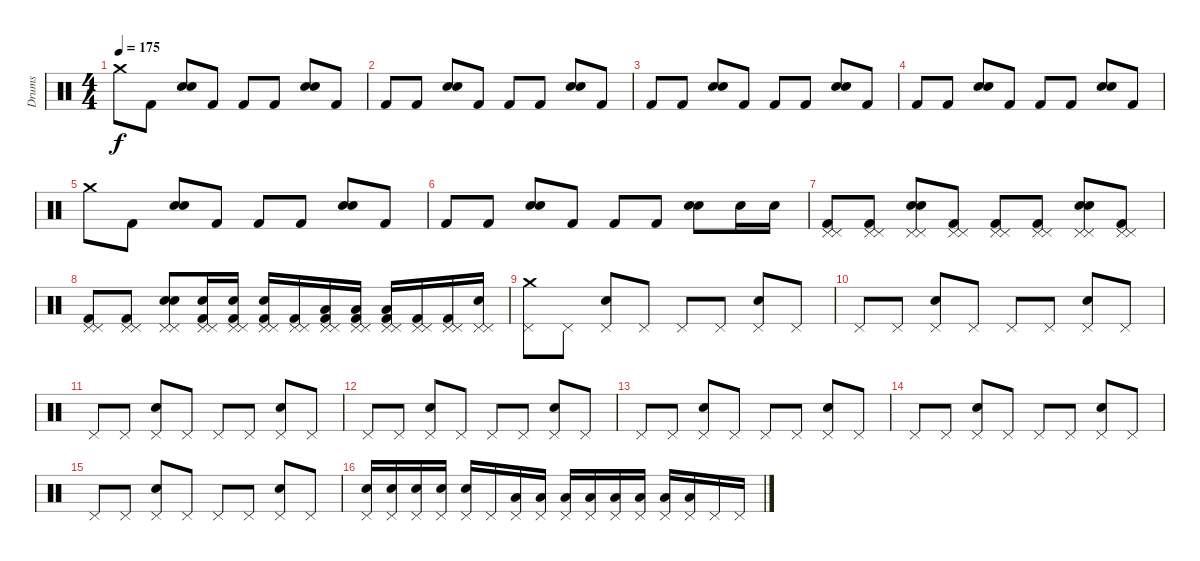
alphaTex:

\track ("Drums" "Drums") {instrument percussion}
\staff {score}
\articulation defaults
\ts (4 4)
\tempo 175
\clef neutral
\ks c "Crash medium (hit)".8{dy f} "Kick (hit) 2".8
("Snare (hit) 2" "Snare (hit) 2").8 "Kick (hit) 2".8 "Kick (hit) 2".8 "Kick (hit) 2".8 ("Snare (hit) 2" "Snare (hit) 2").8 "Kick (hit) 2".8 |
"Kick (hit) 2".8 "Kick (hit) 2".8 ("Snare (hit) 2" "Snare (hit) 2").8 "Kick (hit) 2".8 "Kick (hit) 2".8 "Kick (hit) 2".8 ("Snare (hit) 2" "Snare (hit) 2").8 "Kick (hit) 2".8 |
"Kick (hit) 2".8 "Kick (hit) 2".8 ("Snare (hit) 2" "Snare (hit) 2").8 "Kick (hit) 2".8 "Kick (hit) 2".8 "Kick (hit) 2".8 ("Snare (hit) 2" "Snare (hit) 2").8 "Kick (hit) 2".8 |
"Kick (hit) 2".8 "Kick (hit) 2".8 ("Snare (hit) 2" "Snare (hit) 2").8 "Kick (hit) 2".8 "Kick (hit) 2".8 "Kick (hit) 2".8 ("Snare (hit) 2" "Snare (hit) 2").8 "Kick (hit) 2".8 |
"Crash medium (hit)".8 "Kick (hit) 2".8 ("Snare (hit) 2" "Snare (hit) 2").8 "Kick (hit) 2".8 "Kick (hit) 2".8 "Kick (hit) 2".8 ("Snare (hit) 2" "Snare (hit) 2").8 "Kick (hit) 2".8 |
"Kick (hit) 2".8 "Kick (hit) 2".8 ("Snare (hit) 2" "Snare (hit) 2").8 "Kick (hit) 2".8 "Kick (hit) 2".8 "Kick (hit) 2".8 ("Snare (hit) 2" "Snare (hit) 2").8 "Snare (hit) 2".16 "Snare (hit) 2".16 |
("Kick (hit) 2" "Pedal Hi-Hat (hit)" "Pedal Hi-Hat (hit)").8 ("Kick (hit) 2" "Pedal Hi-Hat (hit)" "Pedal Hi-Hat (hit)").8 ("Snare (hit) 2" "Snare (hit) 2" "Pedal Hi-Hat (hit)" "Pedal Hi-Hat (hit)").8 ("Kick (hit) 2" "Pedal Hi-Hat (hit)" "Pedal Hi-Hat (hit)").8 ("Kick (hit) 2" "Pedal Hi-Hat (hit)" "Pedal Hi-Hat (hit)").8 ("Kick (hit) 2" "Pedal Hi-Hat (hit)" "Pedal Hi-Hat (hit)").8 ("Snare (hit) 2" "Snare (hit) 2" "Pedal Hi-Hat (hit)" "Pedal Hi-Hat (hit)").8 ("Kick (hit) 2" "Pedal Hi-Hat (hit)" "Pedal Hi-Hat (hit)").8 |
("Kick (hit) 2" "Pedal Hi-Hat (hit)" "Pedal Hi-Hat (hit)").8 ("Kick (hit) 2" "Pedal Hi-Hat (hit)" "Pedal Hi-Hat (hit)").8 ("Snare (hit) 2" "Snare (hit) 2" "Pedal Hi-Hat (hit)" "Pedal Hi-Hat (hit)").8 ("Kick (hit) 2" "Snare (hit) 2" "Pedal Hi-Hat (hit)" "Pedal Hi-Hat (hit)").16 ("Kick (hit) 2" "Snare (hit) 2" "Pedal Hi-Hat (hit)" "Pedal Hi-Hat (hit)").16 ("Kick (hit) 2" "Snare (hit) 2" "Pedal Hi-Hat (hit)" "Pedal Hi-Hat (hit)").16 ("Kick (hit) 2" "Pedal Hi-Hat (hit)" "Pedal Hi-Hat (hit)").16 ("Kick (hit) 2" "Low Tom (hit)" "Pedal Hi-Hat (hit)" "Pedal Hi-Hat (hit)").16 ("Kick (hit) 2" "Low Tom (hit)" "Pedal Hi-Hat (hit)" "Pedal Hi-Hat (hit)").16 ("Kick (hit) 2" "Low Tom (hit)" "Pedal Hi-Hat (hit)" "Pedal Hi-Hat (hit)").16 ("Kick (hit) 2" "Pedal Hi-Hat (hit)" "Pedal Hi-Hat (hit)").16 ("Kick (hit) 2" "Pedal Hi-Hat (hit)" "Pedal Hi-Hat (hit)").16 ("Snare (hit) 2" "Pedal Hi-Hat (hit)" "Pedal Hi-Hat (hit)").16 |
("Pedal Hi-Hat (hit)" "Crash medium (hit)").8 "Pedal Hi-Hat (hit)".8 ("Pedal Hi-Hat (hit)" "Snare (hit) 2").8 "Pedal Hi-Hat (hit)".8 "Pedal Hi-Hat (hit)".8 "Pedal Hi-Hat (hit)".8 ("Pedal Hi-Hat (hit)" "Snare (hit) 2").8 "Pedal Hi-Hat (hit)".8 |
"Pedal Hi-Hat (hit)".8 "Pedal Hi-Hat (hit)".8 ("Pedal Hi-Hat (hit)" "Snare (hit) 2").8 "Pedal Hi-Hat (hit)".8 "Pedal Hi-Hat (hit)".8 "Pedal Hi-Hat (hit)".8 ("Pedal Hi-Hat (hit)" "Snare (hit) 2").8 "Pedal Hi-Hat (hit)".8 |
"Pedal Hi-Hat (hit)".8 "Pedal Hi-Hat (hit)".8 ("Pedal Hi-Hat (hit)" "Snare (hit) 2").8 "Pedal Hi-Hat (hit)".8 "Pedal Hi-Hat (hit)".8 "Pedal Hi-Hat (hit)".8 ("Pedal Hi-Hat (hit)" "Snare (hit) 2").8 "Pedal Hi-Hat (hit)".8 |
"Pedal Hi-Hat (hit)".8 "Pedal Hi-Hat (hit)".8 ("Pedal Hi-Hat (hit)" "Snare (hit) 2").8 "Pedal Hi-Hat (hit)".8 "Pedal Hi-Hat (hit)".8 "Pedal Hi-Hat (hit)".8 ("Pedal Hi-Hat (hit)" "Snare (hit) 2").8 "Pedal Hi-Hat (hit)".8 |
"Pedal Hi-Hat (hit)".8 "Pedal Hi-Hat (hit)".8 ("Pedal Hi-Hat (hit)" "Snare (hit) 2").8 "Pedal Hi-Hat (hit)".8 "Pedal Hi-Hat (hit)".8 "Pedal Hi-Hat (hit)".8 ("Pedal Hi-Hat (hit)" "Snare (hit) 2").8 "Pedal Hi-Hat (hit)".8 |
"Pedal Hi-Hat (hit)".8 "Pedal Hi-Hat (hit)".8 ("Pedal Hi-Hat (hit)" "Snare (hit) 2").8 "Pedal Hi-Hat (hit)".8 "Pedal Hi-Hat (hit)".8 "Pedal Hi-Hat (hit)".8 ("Pedal Hi-Hat (hit)" "Snare (hit) 2").8 "Pedal Hi-Hat (hit)".8 |
"Pedal Hi-Hat (hit)".8 "Pedal Hi-Hat (hit)".8 ("Pedal Hi-Hat (hit)" "Snare (hit) 2").8 "Pedal Hi-Hat (hit)".8 "Pedal Hi-Hat (hit)".8 "Pedal Hi-Hat (hit)".8 ("Pedal Hi-Hat (hit)" "Snare (hit) 2").8 "Pedal Hi-Hat (hit)".8 |
("Pedal Hi-Hat (hit)" "Snare (hit) 2").16 ("Pedal Hi-Hat (hit)" "Snare (hit) 2").16 ("Pedal Hi-Hat (hit)" "Snare (hit) 2").16 ("Pedal Hi-Hat (hit)" "Snare (hit) 2").16 ("Pedal Hi-Hat (hit)" "Snare (hit) 2").16 "Pedal Hi-Hat (hit)".16 ("Pedal Hi-Hat (hit)" "Low Tom (hit)").16 ("Pedal Hi-Hat (hit)" "Low Tom (hit)").16 ("Pedal Hi-Hat (hit)" "Low Tom (hit)").16 ("Pedal Hi-Hat (hit)" "Low Tom (hit)").16 ("Pedal Hi-Hat (hit)" "Low Tom (hit)").16 ("Pedal Hi-Hat (hit)" "Low Tom (hit)").16 ("Pedal Hi-Hat (hit)" "Low Tom (hit)").16 ("Pedal Hi-Hat (hit)" "Low Tom (hit)").16 "Pedal Hi-Hat (hit)".16 "Pedal Hi-Hat (hit)".16
